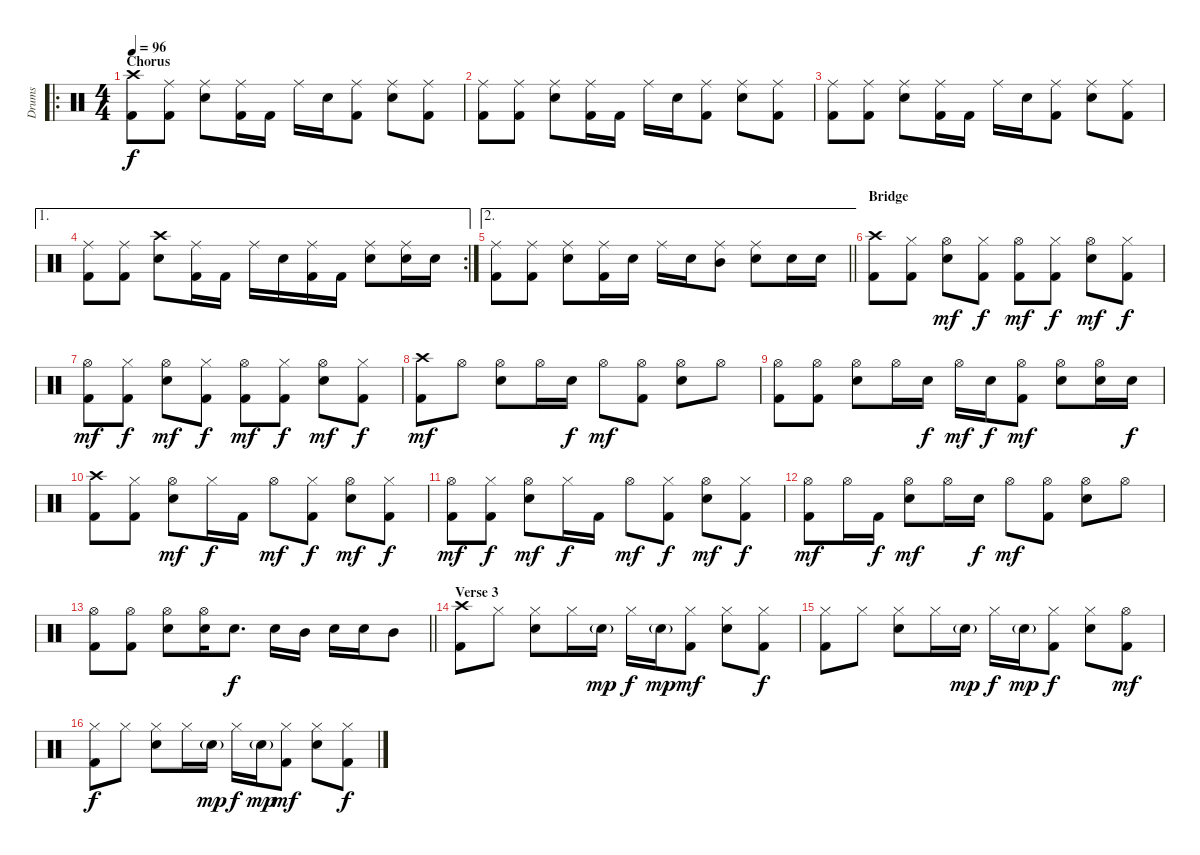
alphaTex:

\track ("Drums" "Drums") {instrument percussion}
\staff {score}
\articulation defaults
\ro
\ts (4 4)
\section ("" "Chorus")
\tempo 96
\clef neutral
\ks c
("Crash high (hit)" "Kick (hit) 2").8{dy f} ("Ride (middle)" "Kick (hit) 2").8 ("Ride (middle)" "Electric Snare (hit)").8 ("Ride (middle)" "Kick (hit) 2").16 "Kick (hit) 2".16 "Ride (middle)".16 "Electric Snare (hit)".16 ("Ride (middle)" "Kick (hit) 2").8 ("Ride (middle)" "Electric Snare (hit)").8 ("Ride (middle)" "Kick (hit) 2").8 |
("Ride (middle)" "Kick (hit) 2").8 ("Ride (middle)" "Kick (hit) 2").8 ("Ride (middle)" "Electric Snare (hit)").8 ("Ride (middle)" "Kick (hit) 2").16 "Kick (hit) 2".16 "Ride (middle)".16 "Electric Snare (hit)".16 ("Ride (middle)" "Kick (hit) 2").8 ("Ride (middle)" "Electric Snare (hit)").8 ("Ride (middle)" "Kick (hit) 2").8 |
("Ride (middle)" "Kick (hit) 2").8 ("Ride (middle)" "Kick (hit) 2").8 ("Ride (middle)" "Electric Snare (hit)").8 ("Ride (middle)" "Kick (hit) 2").16 "Kick (hit) 2".16 "Ride (middle)".16 "Electric Snare (hit)".16 ("Ride (middle)" "Kick (hit) 2").8 ("Ride (middle)" "Electric Snare (hit)").8 ("Ride (middle)" "Kick (hit) 2").8 |
\ae 1
\rc 2
("Ride (middle)" "Kick (hit) 2").8 ("Ride (middle)" "Kick (hit) 2").8 ("Crash high (hit)" "Electric Snare (hit)").8 ("Ride (middle)" "Kick (hit) 2").16 "Kick (hit) 2".16 "Ride (middle)".16 "Electric Snare (hit)".16 ("Ride (middle)" "Kick (hit) 2").16 "Kick (hit) 2".16 ("Ride (middle)" "Electric Snare (hit)").8 ("Ride (middle)" "Electric Snare (hit)").16 "Electric Snare (hit)".16 |
\ae 2
\barLineRight lightlight
("Ride (middle)" "Kick (hit) 2").8 ("Ride (middle)" "Kick (hit) 2").8 ("Ride (middle)" "Electric Snare (hit)").8 ("Ride (middle)" "Kick (hit) 2").16 "Electric Snare (hit)".16 "Ride (middle)".16 "Electric Snare (hit)".16 ("Ride (middle)" "Mid Tom (hit)").8 ("Ride (middle)" "Electric Snare (hit)").8 "Electric Snare (hit)".16 "Electric Snare (hit)".16 |
\section ("" "Bridge")
("Crash high (hit)" "Kick (hit) 2").8 ("Hi-Hat (closed)" "Kick (hit) 2").8 ("Hi-Hat (open)" "Electric Snare (hit)").8{dy mf} ("Hi-Hat (closed)" "Kick (hit) 2").8{dy f} ("Hi-Hat (open)" "Kick (hit) 2").8{dy mf} ("Hi-Hat (closed)" "Kick (hit) 2").8{dy f} ("Hi-Hat (open)" "Electric Snare (hit)").8{dy mf} ("Hi-Hat (closed)" "Kick (hit) 2").8{dy f} |
("Hi-Hat (open)" "Kick (hit) 2").8{dy mf} ("Hi-Hat (closed)" "Kick (hit) 2").8{dy f} ("Hi-Hat (open)" "Electric Snare (hit)").8{dy mf} ("Hi-Hat (closed)" "Kick (hit) 2").8{dy f} ("Hi-Hat (open)" "Kick (hit) 2").8{dy mf} ("Hi-Hat (closed)" "Kick (hit) 2").8{dy f} ("Hi-Hat (open)" "Electric Snare (hit)").8{dy mf} ("Hi-Hat (closed)" "Kick (hit) 2").8{dy f} |
("Crash high (hit)" "Kick (hit) 2").8{dy mf} "Hi-Hat (open)".8 ("Hi-Hat (open)" "Electric Snare (hit)").8 "Hi-Hat (open)".16 "Electric Snare (hit)".16{dy f} "Hi-Hat (open)".8{dy mf} ("Hi-Hat (open)" "Kick (hit) 2").8 ("Hi-Hat (open)" "Electric Snare (hit)").8 "Hi-Hat (open)".8 |
("Hi-Hat (open)" "Kick (hit) 2").8 ("Hi-Hat (open)" "Kick (hit) 2").8 ("Hi-Hat (open)" "Electric Snare (hit)").8 "Hi-Hat (open)".16 "Electric Snare (hit)".16{dy f} "Hi-Hat (open)".16{dy mf} "Electric Snare (hit)".16{dy f} ("Hi-Hat (open)" "Kick (hit) 2").8{dy mf} ("Hi-Hat (open)" "Electric Snare (hit)").8 ("Hi-Hat (open)" "Electric Snare (hit)").16 "Electric Snare (hit)".16{dy f} |
("Crash high (hit)" "Kick (hit) 2").8 ("Hi-Hat (closed)" "Kick (hit) 2").8 ("Hi-Hat (open)" "Electric Snare (hit)").8{dy mf} "Hi-Hat (closed)".16{dy f} "Kick (hit) 2".16 "Hi-Hat (open)".8{dy mf} ("Hi-Hat (closed)" "Kick (hit) 2").8{dy f} ("Hi-Hat (open)" "Electric Snare (hit)").8{dy mf} ("Hi-Hat (closed)" "Kick (hit) 2").8{dy f} |
("Hi-Hat (open)" "Kick (hit) 2").8{dy mf} ("Hi-Hat (closed)" "Kick (hit) 2").8{dy f} ("Hi-Hat (open)" "Electric Snare (hit)").8{dy mf} "Hi-Hat (closed)".16{dy f} "Kick (hit) 2".16 "Hi-Hat (open)".8{dy mf} ("Hi-Hat (closed)" "Kick (hit) 2").8{dy f} ("Hi-Hat (open)" "Electric Snare (hit)").8{dy mf} ("Hi-Hat (closed)" "Kick (hit) 2").8{dy f} |
("Hi-Hat (open)" "Kick (hit) 2").8{dy mf} "Hi-Hat (open)".16 "Kick (hit) 2".16{dy f} ("Hi-Hat (open)" "Electric Snare (hit)").8{dy mf} "Hi-Hat (open)".16 "Electric Snare (hit)".16{dy f} "Hi-Hat (open)".8{dy mf} ("Hi-Hat (open)" "Kick (hit) 2").8 ("Hi-Hat (open)" "Electric Snare (hit)").8 "Hi-Hat (open)".8 |
\barLineRight lightlight
("Hi-Hat (open)" "Kick (hit) 2").8 ("Hi-Hat (open)" "Kick (hit) 2").8 ("Hi-Hat (open)" "Electric Snare (hit)").8 ("Hi-Hat (open)" "Electric Snare (hit)").16 "Electric Snare (hit)".8{d dy f} "Electric Snare (hit)".16 "Mid Tom (hit)".16 "Electric Snare (hit)".16 "Electric Snare (hit)".16 "Mid Tom (hit)".8 |
\section ("" "Verse 3")
("Crash high (hit)" "Kick (hit) 2").8{volume 12} "Hi-Hat (closed)".8 ("Hi-Hat (closed)" "Electric Snare (hit)").8 "Hi-Hat (closed)".16 "Electric Snare (hit)"{g}.16{dy mp} "Hi-Hat (closed)".16{dy f} "Electric Snare (hit)"{g}.16{dy mp} ("Hi-Hat (closed)" "Kick (hit) 2").8{dy mf} ("Hi-Hat (closed)" "Electric Snare (hit)").8 ("Hi-Hat (closed)" "Kick (hit) 2").8{dy f} |
("Hi-Hat (closed)" "Kick (hit) 2").8 "Hi-Hat (closed)".8 ("Hi-Hat (closed)" "Electric Snare (hit)").8 "Hi-Hat (closed)".16 "Electric Snare (hit)"{g}.16{dy mp} "Hi-Hat (closed)".16{dy f} "Electric Snare (hit)"{g}.16{dy mp} ("Hi-Hat (closed)" "Kick (hit) 2").8{dy f} ("Hi-Hat (closed)" "Electric Snare (hit)").8 ("Hi-Hat (open)" "Kick (hit) 2").8{dy mf} |
("Hi-Hat (closed)" "Kick (hit) 2").8{dy f} "Hi-Hat (closed)".8 ("Hi-Hat (closed)" "Electric Snare (hit)").8 "Hi-Hat (closed)".16 "Electric Snare (hit)"{g}.16{dy mp} "Hi-Hat (closed)".16{dy f} "Electric Snare (hit)"{g}.16{dy mp} ("Hi-Hat (closed)" "Kick (hit) 2").8{dy mf} ("Hi-Hat (closed)" "Electric Snare (hit)").8 ("Hi-Hat (closed)" "Kick (hit) 2").8{dy f}
